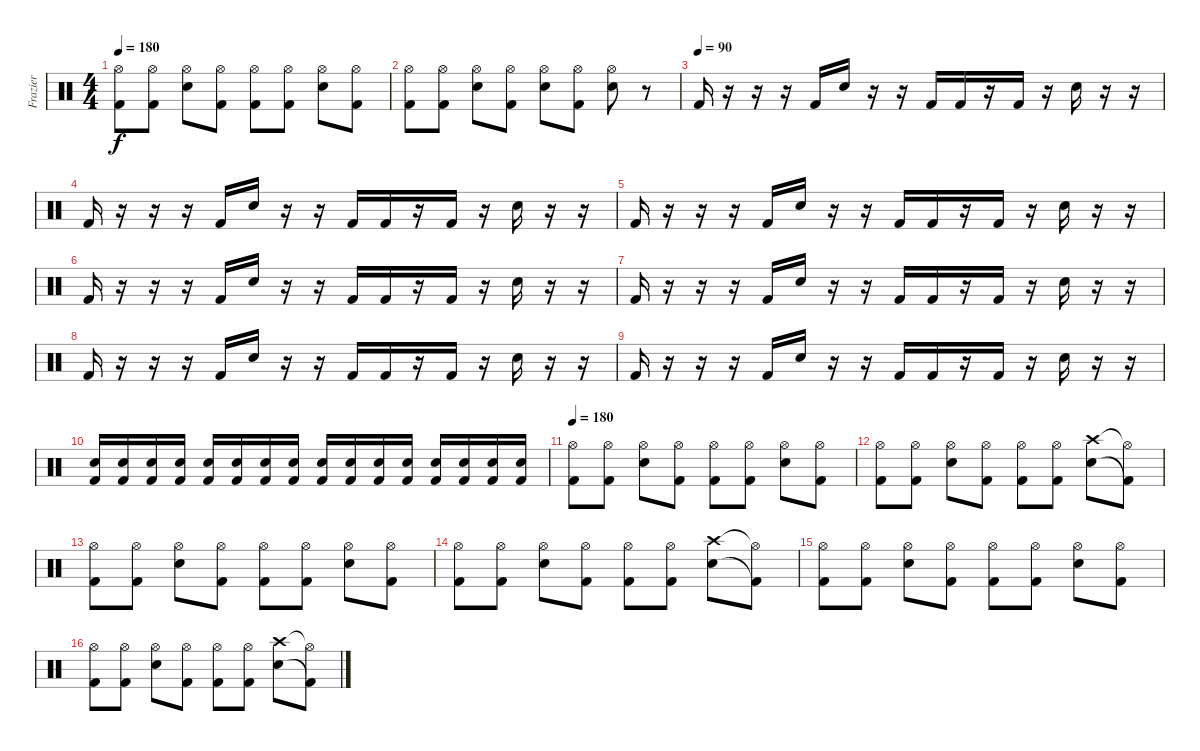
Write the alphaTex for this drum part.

\track ("Frazier" "Frazier") {instrument percussion}
\staff {score}
\articulation defaults
\ts (4 4)
\tempo 180
\clef neutral
\ks c
("Hi-Hat (open)" "Kick (hit) 2").8{dy f} ("Hi-Hat (open)" "Kick (hit) 2").8 ("Hi-Hat (open)" "Electric Snare (hit)").8 ("Hi-Hat (open)" "Kick (hit) 2").8 ("Hi-Hat (open)" "Kick (hit) 2").8 ("Hi-Hat (open)" "Kick (hit) 2").8 ("Hi-Hat (open)" "Electric Snare (hit)").8 ("Hi-Hat (open)" "Kick (hit) 2").8 |
("Hi-Hat (open)" "Kick (hit) 2").8 ("Hi-Hat (open)" "Kick (hit) 2").8 ("Hi-Hat (open)" "Electric Snare (hit)").8 ("Hi-Hat (open)" "Kick (hit) 2").8 ("Hi-Hat (open)" "Electric Snare (hit)").8 ("Hi-Hat (open)" "Kick (hit) 2").8 ("Hi-Hat (open)" "Electric Snare (hit)").8 r.8 |
\tempo (90)
"Kick (hit) 2".16 r.16 r.16 r.16 "Kick (hit) 2".16 "Electric Snare (hit)".16 r.16 r.16 "Kick (hit) 2".16 "Kick (hit) 2".16 r.16 "Kick (hit) 2".16 r.16 "Electric Snare (hit)".16 r.16 r.16 |
"Kick (hit) 2".16 r.16 r.16 r.16 "Kick (hit) 2".16 "Electric Snare (hit)".16 r.16 r.16 "Kick (hit) 2".16 "Kick (hit) 2".16 r.16 "Kick (hit) 2".16 r.16 "Electric Snare (hit)".16 r.16 r.16 |
"Kick (hit) 2".16 r.16 r.16 r.16 "Kick (hit) 2".16 "Electric Snare (hit)".16 r.16 r.16 "Kick (hit) 2".16 "Kick (hit) 2".16 r.16 "Kick (hit) 2".16 r.16 "Electric Snare (hit)".16 r.16 r.16 |
"Kick (hit) 2".16 r.16 r.16 r.16 "Kick (hit) 2".16 "Electric Snare (hit)".16 r.16 r.16 "Kick (hit) 2".16 "Kick (hit) 2".16 r.16 "Kick (hit) 2".16 r.16 "Electric Snare (hit)".16 r.16 r.16 |
"Kick (hit) 2".16 r.16 r.16 r.16 "Kick (hit) 2".16 "Electric Snare (hit)".16 r.16 r.16 "Kick (hit) 2".16 "Kick (hit) 2".16 r.16 "Kick (hit) 2".16 r.16 "Electric Snare (hit)".16 r.16 r.16 |
"Kick (hit) 2".16 r.16 r.16 r.16 "Kick (hit) 2".16 "Electric Snare (hit)".16 r.16 r.16 "Kick (hit) 2".16 "Kick (hit) 2".16 r.16 "Kick (hit) 2".16 r.16 "Electric Snare (hit)".16 r.16 r.16 |
"Kick (hit) 2".16 r.16 r.16 r.16 "Kick (hit) 2".16 "Electric Snare (hit)".16 r.16 r.16 "Kick (hit) 2".16 "Kick (hit) 2".16 r.16 "Kick (hit) 2".16 r.16 "Electric Snare (hit)".16 r.16 r.16 |
("Kick (hit) 2" "Electric Snare (hit)").16 ("Kick (hit) 2" "Electric Snare (hit)").16 ("Kick (hit) 2" "Electric Snare (hit)").16 ("Kick (hit) 2" "Electric Snare (hit)").16 ("Kick (hit) 2" "Electric Snare (hit)").16 ("Kick (hit) 2" "Electric Snare (hit)").16 ("Kick (hit) 2" "Electric Snare (hit)").16 ("Kick (hit) 2" "Electric Snare (hit)").16 ("Kick (hit) 2" "Electric Snare (hit)").16 ("Kick (hit) 2" "Electric Snare (hit)").16 ("Kick (hit) 2" "Electric Snare (hit)").16 ("Kick (hit) 2" "Electric Snare (hit)").16 ("Kick (hit) 2" "Electric Snare (hit)").16 ("Kick (hit) 2" "Electric Snare (hit)").16 ("Kick (hit) 2" "Electric Snare (hit)").16 ("Kick (hit) 2" "Electric Snare (hit)").16 |
\tempo 180
("Hi-Hat (open)" "Kick (hit) 2").8 ("Hi-Hat (open)" "Kick (hit) 2").8 ("Hi-Hat (open)" "Electric Snare (hit)").8 ("Hi-Hat (open)" "Kick (hit) 2").8 ("Hi-Hat (open)" "Kick (hit) 2").8 ("Hi-Hat (open)" "Kick (hit) 2").8 ("Hi-Hat (open)" "Electric Snare (hit)").8 ("Hi-Hat (open)" "Kick (hit) 2").8 |
("Hi-Hat (open)" "Kick (hit) 2").8 ("Hi-Hat (open)" "Kick (hit) 2").8 ("Hi-Hat (open)" "Electric Snare (hit)").8 ("Hi-Hat (open)" "Kick (hit) 2").8 ("Hi-Hat (open)" "Kick (hit) 2").8 ("Hi-Hat (open)" "Kick (hit) 2").8 ("Crash high (hit)" "Electric Snare (hit)").8 ("Hi-Hat (open)"{t} "Kick (hit) 2"{t}).8 |
("Hi-Hat (open)" "Kick (hit) 2").8 ("Hi-Hat (open)" "Kick (hit) 2").8 ("Hi-Hat (open)" "Electric Snare (hit)").8 ("Hi-Hat (open)" "Kick (hit) 2").8 ("Hi-Hat (open)" "Kick (hit) 2").8 ("Hi-Hat (open)" "Kick (hit) 2").8 ("Hi-Hat (open)" "Electric Snare (hit)").8 ("Hi-Hat (open)" "Kick (hit) 2").8 |
("Hi-Hat (open)" "Kick (hit) 2").8 ("Hi-Hat (open)" "Kick (hit) 2").8 ("Hi-Hat (open)" "Electric Snare (hit)").8 ("Hi-Hat (open)" "Kick (hit) 2").8 ("Hi-Hat (open)" "Kick (hit) 2").8 ("Hi-Hat (open)" "Kick (hit) 2").8 ("Crash high (hit)" "Electric Snare (hit)").8 ("Hi-Hat (open)"{t} "Kick (hit) 2"{t}).8 |
("Hi-Hat (open)" "Kick (hit) 2").8 ("Hi-Hat (open)" "Kick (hit) 2").8 ("Hi-Hat (open)" "Electric Snare (hit)").8 ("Hi-Hat (open)" "Kick (hit) 2").8 ("Hi-Hat (open)" "Kick (hit) 2").8 ("Hi-Hat (open)" "Kick (hit) 2").8 ("Hi-Hat (open)" "Electric Snare (hit)").8 ("Hi-Hat (open)" "Kick (hit) 2").8 |
("Hi-Hat (open)" "Kick (hit) 2").8 ("Hi-Hat (open)" "Kick (hit) 2").8 ("Hi-Hat (open)" "Electric Snare (hit)").8 ("Hi-Hat (open)" "Kick (hit) 2").8 ("Hi-Hat (open)" "Kick (hit) 2").8 ("Hi-Hat (open)" "Kick (hit) 2").8 ("Crash high (hit)" "Electric Snare (hit)").8 ("Hi-Hat (open)"{t} "Kick (hit) 2"{t}).8
